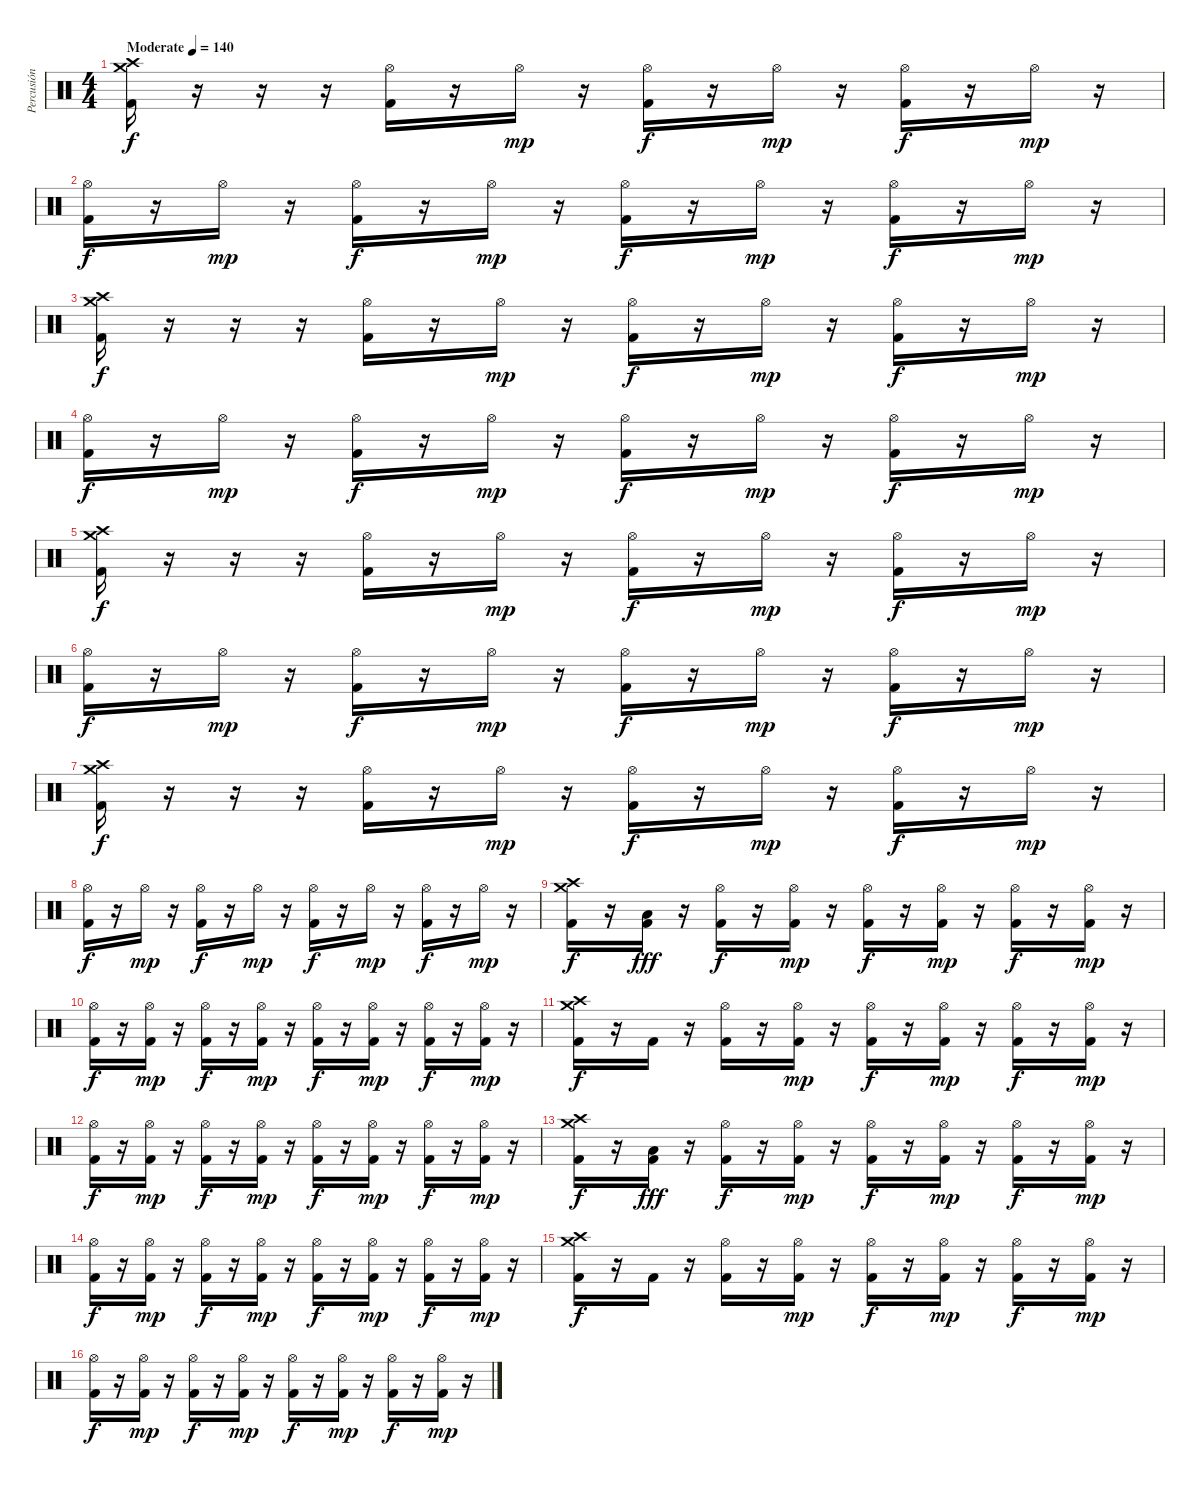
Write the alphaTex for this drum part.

\track ("Percusión" "Percusión") {instrument percussion}
\staff {score}
\articulation defaults
\ts (4 4)
\tempo (140 "Moderate")
\clef neutral
\ks c
("Crash medium (hit)" "Crash high (hit)" "Kick (hit) 2").16{dy f} r.16 r.16 r.16 ("Hi-Hat (open)" "Kick (hit) 2").16 r.16 "Hi-Hat (open)".16{dy mp} r.16 ("Hi-Hat (open)" "Kick (hit) 2").16{dy f} r.16 "Hi-Hat (open)".16{dy mp} r.16 ("Hi-Hat (open)" "Kick (hit) 2").16{dy f} r.16 "Hi-Hat (open)".16{dy mp} r.16 |
("Hi-Hat (open)" "Kick (hit) 2").16{dy f} r.16 "Hi-Hat (open)".16{dy mp} r.16 ("Hi-Hat (open)" "Kick (hit) 2").16{dy f} r.16 "Hi-Hat (open)".16{dy mp} r.16 ("Hi-Hat (open)" "Kick (hit) 2").16{dy f} r.16 "Hi-Hat (open)".16{dy mp} r.16 ("Hi-Hat (open)" "Kick (hit) 2").16{dy f} r.16 "Hi-Hat (open)".16{dy mp} r.16 |
("Crash medium (hit)" "Crash high (hit)" "Kick (hit) 2").16{dy f} r.16 r.16 r.16 ("Hi-Hat (open)" "Kick (hit) 2").16 r.16 "Hi-Hat (open)".16{dy mp} r.16 ("Hi-Hat (open)" "Kick (hit) 2").16{dy f} r.16 "Hi-Hat (open)".16{dy mp} r.16 ("Hi-Hat (open)" "Kick (hit) 2").16{dy f} r.16 "Hi-Hat (open)".16{dy mp} r.16 |
("Hi-Hat (open)" "Kick (hit) 2").16{dy f} r.16 "Hi-Hat (open)".16{dy mp} r.16 ("Hi-Hat (open)" "Kick (hit) 2").16{dy f} r.16 "Hi-Hat (open)".16{dy mp} r.16 ("Hi-Hat (open)" "Kick (hit) 2").16{dy f} r.16 "Hi-Hat (open)".16{dy mp} r.16 ("Hi-Hat (open)" "Kick (hit) 2").16{dy f} r.16 "Hi-Hat (open)".16{dy mp} r.16 |
("Crash medium (hit)" "Crash high (hit)" "Kick (hit) 2").16{dy f} r.16 r.16 r.16 ("Hi-Hat (open)" "Kick (hit) 2").16 r.16 "Hi-Hat (open)".16{dy mp} r.16 ("Hi-Hat (open)" "Kick (hit) 2").16{dy f} r.16 "Hi-Hat (open)".16{dy mp} r.16 ("Hi-Hat (open)" "Kick (hit) 2").16{dy f} r.16 "Hi-Hat (open)".16{dy mp} r.16 |
("Hi-Hat (open)" "Kick (hit) 2").16{dy f} r.16 "Hi-Hat (open)".16{dy mp} r.16 ("Hi-Hat (open)" "Kick (hit) 2").16{dy f} r.16 "Hi-Hat (open)".16{dy mp} r.16 ("Hi-Hat (open)" "Kick (hit) 2").16{dy f} r.16 "Hi-Hat (open)".16{dy mp} r.16 ("Hi-Hat (open)" "Kick (hit) 2").16{dy f} r.16 "Hi-Hat (open)".16{dy mp} r.16 |
("Crash medium (hit)" "Crash high (hit)" "Kick (hit) 2").16{dy f} r.16 r.16 r.16 ("Hi-Hat (open)" "Kick (hit) 2").16 r.16 "Hi-Hat (open)".16{dy mp} r.16 ("Hi-Hat (open)" "Kick (hit) 2").16{dy f} r.16 "Hi-Hat (open)".16{dy mp} r.16 ("Hi-Hat (open)" "Kick (hit) 2").16{dy f} r.16 "Hi-Hat (open)".16{dy mp} r.16 |
("Hi-Hat (open)" "Kick (hit) 2").16{dy f} r.16 "Hi-Hat (open)".16{dy mp} r.16 ("Hi-Hat (open)" "Kick (hit) 2").16{dy f} r.16 "Hi-Hat (open)".16{dy mp} r.16 ("Hi-Hat (open)" "Kick (hit) 2").16{dy f} r.16 "Hi-Hat (open)".16{dy mp} r.16 ("Hi-Hat (open)" "Kick (hit) 2").16{dy f} r.16 "Hi-Hat (open)".16{dy mp} r.16 |
("Crash medium (hit)" "Crash high (hit)" "Kick (hit) 2").16{dy f} r.16 ("Low Floor Tom (hit)" "Kick (hit) 2").16{dy fff} r.16 ("Hi-Hat (open)" "Kick (hit) 2").16{dy f} r.16 ("Hi-Hat (open)" "Kick (hit) 2").16{dy mp} r.16 ("Hi-Hat (open)" "Kick (hit) 2").16{dy f} r.16 ("Hi-Hat (open)" "Kick (hit) 2").16{dy mp} r.16 ("Hi-Hat (open)" "Kick (hit) 2").16{dy f} r.16 ("Hi-Hat (open)" "Kick (hit) 2").16{dy mp} r.16 |
("Hi-Hat (open)" "Kick (hit) 2").16{dy f} r.16 ("Hi-Hat (open)" "Kick (hit) 2").16{dy mp} r.16 ("Hi-Hat (open)" "Kick (hit) 2").16{dy f} r.16 ("Hi-Hat (open)" "Kick (hit) 2").16{dy mp} r.16 ("Hi-Hat (open)" "Kick (hit) 2").16{dy f} r.16 ("Hi-Hat (open)" "Kick (hit) 2").16{dy mp} r.16 ("Hi-Hat (open)" "Kick (hit) 2").16{dy f} r.16 ("Hi-Hat (open)" "Kick (hit) 2").16{dy mp} r.16 |
("Crash medium (hit)" "Crash high (hit)" "Kick (hit) 2").16{dy f} r.16 "Kick (hit) 2".16 r.16 ("Hi-Hat (open)" "Kick (hit) 2").16 r.16 ("Hi-Hat (open)" "Kick (hit) 2").16{dy mp} r.16 ("Hi-Hat (open)" "Kick (hit) 2").16{dy f} r.16 ("Hi-Hat (open)" "Kick (hit) 2").16{dy mp} r.16 ("Hi-Hat (open)" "Kick (hit) 2").16{dy f} r.16 ("Hi-Hat (open)" "Kick (hit) 2").16{dy mp} r.16 |
("Hi-Hat (open)" "Kick (hit) 2").16{dy f} r.16 ("Hi-Hat (open)" "Kick (hit) 2").16{dy mp} r.16 ("Hi-Hat (open)" "Kick (hit) 2").16{dy f} r.16 ("Hi-Hat (open)" "Kick (hit) 2").16{dy mp} r.16 ("Hi-Hat (open)" "Kick (hit) 2").16{dy f} r.16 ("Hi-Hat (open)" "Kick (hit) 2").16{dy mp} r.16 ("Hi-Hat (open)" "Kick (hit) 2").16{dy f} r.16 ("Hi-Hat (open)" "Kick (hit) 2").16{dy mp} r.16 |
("Crash medium (hit)" "Crash high (hit)" "Kick (hit) 2").16{dy f} r.16 ("Low Floor Tom (hit)" "Kick (hit) 2").16{dy fff} r.16 ("Hi-Hat (open)" "Kick (hit) 2").16{dy f} r.16 ("Hi-Hat (open)" "Kick (hit) 2").16{dy mp} r.16 ("Hi-Hat (open)" "Kick (hit) 2").16{dy f} r.16 ("Hi-Hat (open)" "Kick (hit) 2").16{dy mp} r.16 ("Hi-Hat (open)" "Kick (hit) 2").16{dy f} r.16 ("Hi-Hat (open)" "Kick (hit) 2").16{dy mp} r.16 |
("Hi-Hat (open)" "Kick (hit) 2").16{dy f} r.16 ("Hi-Hat (open)" "Kick (hit) 2").16{dy mp} r.16 ("Hi-Hat (open)" "Kick (hit) 2").16{dy f} r.16 ("Hi-Hat (open)" "Kick (hit) 2").16{dy mp} r.16 ("Hi-Hat (open)" "Kick (hit) 2").16{dy f} r.16 ("Hi-Hat (open)" "Kick (hit) 2").16{dy mp} r.16 ("Hi-Hat (open)" "Kick (hit) 2").16{dy f} r.16 ("Hi-Hat (open)" "Kick (hit) 2").16{dy mp} r.16 |
("Crash medium (hit)" "Crash high (hit)" "Kick (hit) 2").16{dy f} r.16 "Kick (hit) 2".16 r.16 ("Hi-Hat (open)" "Kick (hit) 2").16 r.16 ("Hi-Hat (open)" "Kick (hit) 2").16{dy mp} r.16 ("Hi-Hat (open)" "Kick (hit) 2").16{dy f} r.16 ("Hi-Hat (open)" "Kick (hit) 2").16{dy mp} r.16 ("Hi-Hat (open)" "Kick (hit) 2").16{dy f} r.16 ("Hi-Hat (open)" "Kick (hit) 2").16{dy mp} r.16 |
("Hi-Hat (open)" "Kick (hit) 2").16{dy f} r.16 ("Hi-Hat (open)" "Kick (hit) 2").16{dy mp} r.16 ("Hi-Hat (open)" "Kick (hit) 2").16{dy f} r.16 ("Hi-Hat (open)" "Kick (hit) 2").16{dy mp} r.16 ("Hi-Hat (open)" "Kick (hit) 2").16{dy f} r.16 ("Hi-Hat (open)" "Kick (hit) 2").16{dy mp} r.16 ("Hi-Hat (open)" "Kick (hit) 2").16{dy f} r.16 ("Hi-Hat (open)" "Kick (hit) 2").16{dy mp} r.16
